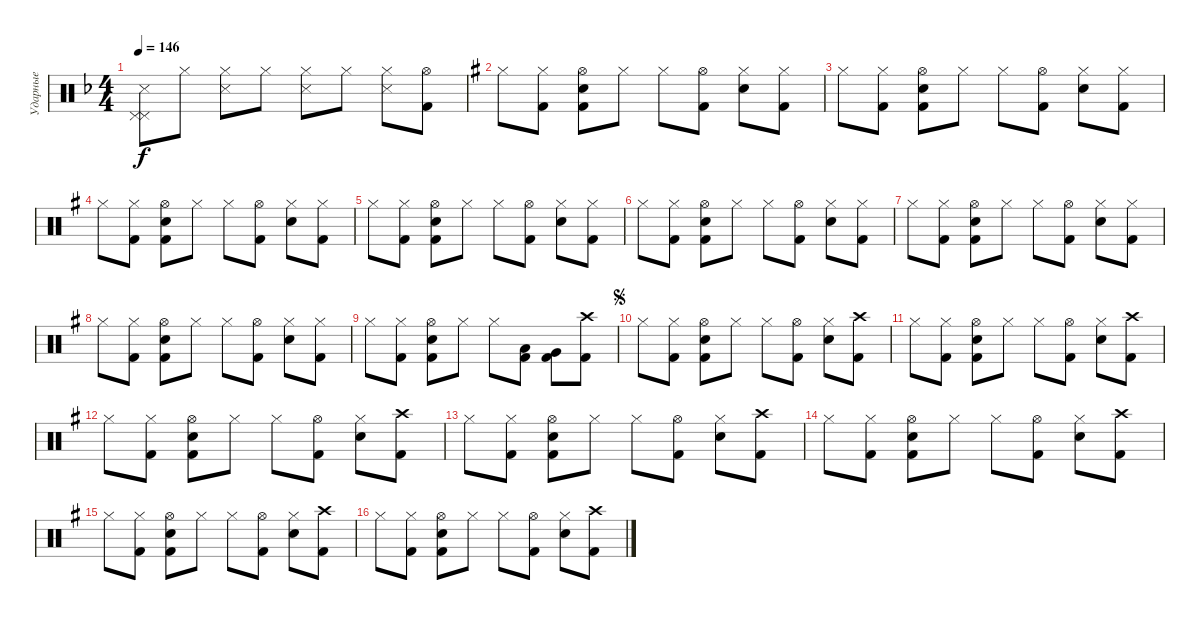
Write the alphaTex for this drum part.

\track ("Ударные" "Ударные") {instrument percussion}
\staff {score}
\articulation defaults
\ts (4 4)
\tempo 146
\clef neutral
\ks f
("Pedal Hi-Hat (hit)"{t} "Pedal Hi-Hat (hit)" "Snare (side stick) 3").8{dy f} "Hi-Hat (closed)".8 ("Hi-Hat (closed)" "Snare (side stick) 3").8 "Hi-Hat (closed)".8 ("Hi-Hat (closed)" "Snare (side stick) 3").8 "Hi-Hat (closed)".8 ("Hi-Hat (closed)" "Snare (side stick) 3").8 ("Hi-Hat (open)" "Kick (hit) 2").8 |
\ks g "Hi-Hat (closed)".8
("Hi-Hat (closed)" "Kick (hit) 2").8 ("Hi-Hat (open)" "Snare (hit) 2" "Kick (hit) 2").8 "Hi-Hat (closed)".8 "Hi-Hat (closed)".8 ("Hi-Hat (open)" "Kick (hit) 2").8 ("Hi-Hat (closed)" "Snare (hit) 2").8 ("Hi-Hat (closed)" "Kick (hit) 2").8 |
"Hi-Hat (closed)".8 ("Hi-Hat (closed)" "Kick (hit) 2").8 ("Hi-Hat (open)" "Snare (hit) 2" "Kick (hit) 2").8 "Hi-Hat (closed)".8 "Hi-Hat (closed)".8 ("Hi-Hat (open)" "Kick (hit) 2").8 ("Hi-Hat (closed)" "Snare (hit) 2").8 ("Hi-Hat (closed)" "Kick (hit) 2").8 |
"Hi-Hat (closed)".8 ("Hi-Hat (closed)" "Kick (hit) 2").8 ("Hi-Hat (open)" "Snare (hit) 2" "Kick (hit) 2").8 "Hi-Hat (closed)".8 "Hi-Hat (closed)".8 ("Hi-Hat (open)" "Kick (hit) 2").8 ("Hi-Hat (closed)" "Snare (hit) 2").8 ("Hi-Hat (closed)" "Kick (hit) 2").8 |
"Hi-Hat (closed)".8 ("Hi-Hat (closed)" "Kick (hit) 2").8 ("Hi-Hat (open)" "Snare (hit) 2" "Kick (hit) 2").8 "Hi-Hat (closed)".8 "Hi-Hat (closed)".8 ("Hi-Hat (open)" "Kick (hit) 2").8 ("Hi-Hat (closed)" "Snare (hit) 2").8 ("Hi-Hat (closed)" "Kick (hit) 2").8 |
"Hi-Hat (closed)".8 ("Hi-Hat (closed)" "Kick (hit) 2").8 ("Hi-Hat (open)" "Snare (hit) 2" "Kick (hit) 2").8 "Hi-Hat (closed)".8 "Hi-Hat (closed)".8 ("Hi-Hat (open)" "Kick (hit) 2").8 ("Hi-Hat (closed)" "Snare (hit) 2").8 ("Hi-Hat (closed)" "Kick (hit) 2").8 |
"Hi-Hat (closed)".8 ("Hi-Hat (closed)" "Kick (hit) 2").8 ("Hi-Hat (open)" "Snare (hit) 2" "Kick (hit) 2").8 "Hi-Hat (closed)".8 "Hi-Hat (closed)".8 ("Hi-Hat (open)" "Kick (hit) 2").8 ("Hi-Hat (closed)" "Snare (hit) 2").8 ("Hi-Hat (closed)" "Kick (hit) 2").8 |
"Hi-Hat (closed)".8 ("Hi-Hat (closed)" "Kick (hit) 2").8 ("Hi-Hat (open)" "Snare (hit) 2" "Kick (hit) 2").8 "Hi-Hat (closed)".8 "Hi-Hat (closed)".8 ("Hi-Hat (open)" "Kick (hit) 2").8 ("Hi-Hat (closed)" "Snare (hit) 2").8 ("Hi-Hat (closed)" "Kick (hit) 2").8 |
"Hi-Hat (closed)".8 ("Hi-Hat (closed)" "Kick (hit) 2").8 ("Hi-Hat (open)" "Snare (hit) 2" "Kick (hit) 2").8 "Hi-Hat (closed)".8 "Hi-Hat (closed)".8 ("Low Floor Tom (hit)" "Kick (hit) 2").8 ("Very Low Tom (hit)" "Kick (hit) 2").8 ("Crash high (hit)" "Kick (hit) 2").8 |
\jump segno "Hi-Hat (closed)".8
("Hi-Hat (closed)" "Kick (hit) 2").8 ("Hi-Hat (open)" "Snare (hit) 2" "Kick (hit) 2").8 "Hi-Hat (closed)".8 "Hi-Hat (closed)".8 ("Hi-Hat (open)" "Kick (hit) 2").8 ("Hi-Hat (closed)" "Snare (hit) 2").8 ("Crash high (hit)" "Kick (hit) 2").8 |
"Hi-Hat (closed)".8 ("Hi-Hat (closed)" "Kick (hit) 2").8 ("Hi-Hat (open)" "Snare (hit) 2" "Kick (hit) 2").8 "Hi-Hat (closed)".8 "Hi-Hat (closed)".8 ("Hi-Hat (open)" "Kick (hit) 2").8 ("Hi-Hat (closed)" "Snare (hit) 2").8 ("Crash high (hit)" "Kick (hit) 2").8 |
"Hi-Hat (closed)".8 ("Hi-Hat (closed)" "Kick (hit) 2").8 ("Hi-Hat (open)" "Snare (hit) 2" "Kick (hit) 2").8 "Hi-Hat (closed)".8 "Hi-Hat (closed)".8 ("Hi-Hat (open)" "Kick (hit) 2").8 ("Hi-Hat (closed)" "Snare (hit) 2").8 ("Crash high (hit)" "Kick (hit) 2").8 |
"Hi-Hat (closed)".8 ("Hi-Hat (closed)" "Kick (hit) 2").8 ("Hi-Hat (open)" "Snare (hit) 2" "Kick (hit) 2").8 "Hi-Hat (closed)".8 "Hi-Hat (closed)".8 ("Hi-Hat (open)" "Kick (hit) 2").8 ("Hi-Hat (closed)" "Snare (hit) 2").8 ("Crash high (hit)" "Kick (hit) 2").8 |
"Hi-Hat (closed)".8 ("Hi-Hat (closed)" "Kick (hit) 2").8 ("Hi-Hat (open)" "Snare (hit) 2" "Kick (hit) 2").8 "Hi-Hat (closed)".8 "Hi-Hat (closed)".8 ("Hi-Hat (open)" "Kick (hit) 2").8 ("Hi-Hat (closed)" "Snare (hit) 2").8 ("Crash high (hit)" "Kick (hit) 2").8 |
"Hi-Hat (closed)".8 ("Hi-Hat (closed)" "Kick (hit) 2").8 ("Hi-Hat (open)" "Snare (hit) 2" "Kick (hit) 2").8 "Hi-Hat (closed)".8 "Hi-Hat (closed)".8 ("Hi-Hat (open)" "Kick (hit) 2").8 ("Hi-Hat (closed)" "Snare (hit) 2").8 ("Crash high (hit)" "Kick (hit) 2").8 |
"Hi-Hat (closed)".8 ("Hi-Hat (closed)" "Kick (hit) 2").8 ("Hi-Hat (open)" "Snare (hit) 2" "Kick (hit) 2").8 "Hi-Hat (closed)".8 "Hi-Hat (closed)".8 ("Hi-Hat (open)" "Kick (hit) 2").8 ("Hi-Hat (closed)" "Snare (hit) 2").8 ("Crash high (hit)" "Kick (hit) 2").8
